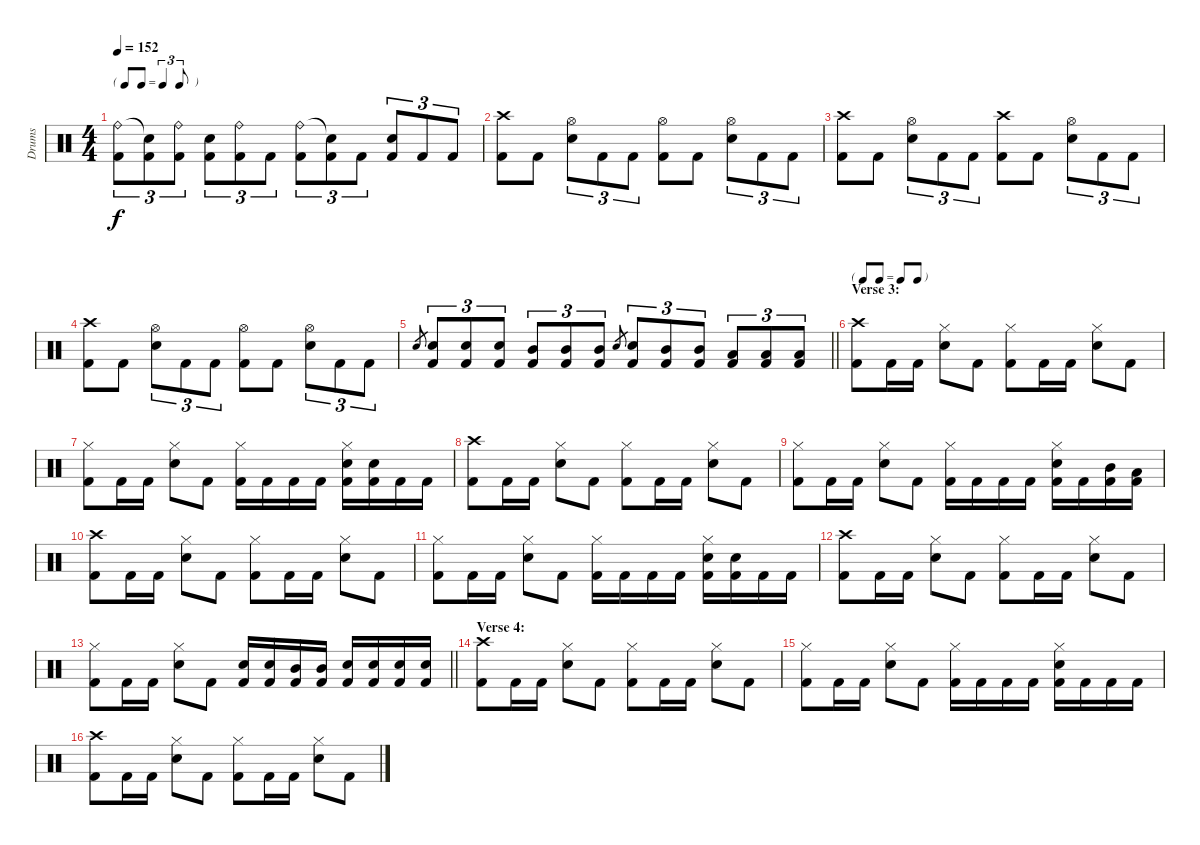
\track ("Drums" "Drums") {instrument percussion}
\staff {score}
\articulation defaults
\ts (4 4)
\tf triplet8th
\tempo 152
\clef neutral
\ks c
("Ride (bell)" "Kick (hit) 2").8{tu (3 2) dy f} ("Snare (hit)"{t} "Kick (hit) 2").8{tu (3 2)} ("Ride (bell)" "Kick (hit) 2").8{tu (3 2)} ("Snare (hit) 2" "Kick (hit) 2").8{tu (3 2)} ("Ride (bell)" "Kick (hit) 2").8{tu (3 2)} "Kick (hit) 2".8{tu (3 2)} ("Ride (bell)" "Kick (hit) 2").8{tu (3 2)} ("Snare (hit)"{t} "Kick (hit) 2").8{tu (3 2)} "Kick (hit) 2".8{tu (3 2)} ("Snare (hit) 2" "Kick (hit) 2").8{tu (3 2)} "Kick (hit) 2".8{tu (3 2)} "Kick (hit) 2".8{tu (3 2)} |
("Crash high (hit)" "Kick (hit) 2").8 "Kick (hit) 2".8 ("Hi-Hat (open)" "Snare (hit) 2").8{tu (3 2)} "Kick (hit) 2".8{tu (3 2)} "Kick (hit) 2".8{tu (3 2)} ("Hi-Hat (open)" "Kick (hit) 2").8 "Kick (hit) 2".8 ("Hi-Hat (open)" "Snare (hit) 2").8{tu (3 2)} "Kick (hit) 2".8{tu (3 2)} "Kick (hit) 2".8{tu (3 2)} |
("Crash high (hit)" "Kick (hit) 2").8 "Kick (hit) 2".8 ("Hi-Hat (open)" "Snare (hit) 2").8{tu (3 2)} "Kick (hit) 2".8{tu (3 2)} "Kick (hit) 2".8{tu (3 2)} ("Crash high (hit)" "Kick (hit) 2").8 "Kick (hit) 2".8 ("Hi-Hat (open)" "Snare (hit) 2").8{tu (3 2)} "Kick (hit) 2".8{tu (3 2)} "Kick (hit) 2".8{tu (3 2)} |
("Crash high (hit)" "Kick (hit) 2").8 "Kick (hit) 2".8 ("Hi-Hat (open)" "Snare (hit) 2").8{tu (3 2)} "Kick (hit) 2".8{tu (3 2)} "Kick (hit) 2".8{tu (3 2)} ("Hi-Hat (open)" "Kick (hit) 2").8 "Kick (hit) 2".8 ("Hi-Hat (open)" "Snare (hit) 2").8{tu (3 2)} "Kick (hit) 2".8{tu (3 2)} "Kick (hit) 2".8{tu (3 2)} |
\barLineRight lightlight "Snare (hit) 2".8{gr}
("Snare (hit) 2" "Kick (hit) 2").8{tu (3 2)} ("Snare (hit) 2" "Kick (hit) 2").8{tu (3 2)} ("Snare (hit) 2" "Kick (hit) 2").8{tu (3 2)} ("Mid Tom (hit)" "Kick (hit) 2").8{tu (3 2)} ("Mid Tom (hit)" "Kick (hit) 2").8{tu (3 2)} ("Mid Tom (hit)" "Kick (hit) 2").8{tu (3 2)} "Snare (hit) 2".8{gr} ("Snare (hit) 2" "Kick (hit) 2").8{tu (3 2)} ("Mid Tom (hit)" "Kick (hit) 2").8{tu (3 2)} ("Mid Tom (hit)" "Kick (hit) 2").8{tu (3 2)} ("Low Tom (hit)" "Kick (hit) 2").8{tu (3 2)} ("Low Tom (hit)" "Kick (hit) 2").8{tu (3 2)} ("Low Tom (hit)" "Kick (hit) 2").8{tu (3 2)} |
\tf none
\section ("" "Verse 3:")
("Crash high (hit)" "Kick (hit) 2").8 "Kick (hit) 2".16 "Kick (hit) 2".16 ("Hi-Hat (closed)" "Snare (hit) 2").8 "Kick (hit) 2".8 ("Hi-Hat (closed)" "Kick (hit) 2").8 "Kick (hit) 2".16 "Kick (hit) 2".16 ("Hi-Hat (closed)" "Snare (hit) 2").8 "Kick (hit) 2".8 |
("Hi-Hat (closed)" "Kick (hit) 2").8 "Kick (hit) 2".16 "Kick (hit) 2".16 ("Hi-Hat (closed)" "Snare (hit) 2").8 "Kick (hit) 2".8 ("Hi-Hat (closed)" "Kick (hit) 2").16 "Kick (hit) 2".16 "Kick (hit) 2".16 "Kick (hit) 2".16 ("Hi-Hat (closed)" "Snare (hit) 2" "Kick (hit) 2").16 ("Snare (hit) 2" "Kick (hit) 2").16 "Kick (hit) 2".16 "Kick (hit) 2".16 |
("Crash high (hit)" "Kick (hit) 2").8 "Kick (hit) 2".16 "Kick (hit) 2".16 ("Hi-Hat (closed)" "Snare (hit) 2").8 "Kick (hit) 2".8 ("Hi-Hat (closed)" "Kick (hit) 2").8 "Kick (hit) 2".16 "Kick (hit) 2".16 ("Hi-Hat (closed)" "Snare (hit) 2").8 "Kick (hit) 2".8 |
("Hi-Hat (closed)" "Kick (hit) 2").8 "Kick (hit) 2".16 "Kick (hit) 2".16 ("Hi-Hat (closed)" "Snare (hit) 2").8 "Kick (hit) 2".8 ("Hi-Hat (closed)" "Kick (hit) 2").16 "Kick (hit) 2".16 "Kick (hit) 2".16 "Kick (hit) 2".16 ("Hi-Hat (closed)" "Snare (hit) 2" "Kick (hit) 2").16 "Kick (hit) 2".16 ("Mid Tom (hit)" "Kick (hit) 2").16 ("Low Tom (hit)" "Kick (hit) 2").16 |
("Crash high (hit)" "Kick (hit) 2").8 "Kick (hit) 2".16 "Kick (hit) 2".16 ("Hi-Hat (closed)" "Snare (hit) 2").8 "Kick (hit) 2".8 ("Hi-Hat (closed)" "Kick (hit) 2").8 "Kick (hit) 2".16 "Kick (hit) 2".16 ("Hi-Hat (closed)" "Snare (hit) 2").8 "Kick (hit) 2".8 |
("Hi-Hat (closed)" "Kick (hit) 2").8 "Kick (hit) 2".16 "Kick (hit) 2".16 ("Hi-Hat (closed)" "Snare (hit) 2").8 "Kick (hit) 2".8 ("Hi-Hat (closed)" "Kick (hit) 2").16 "Kick (hit) 2".16 "Kick (hit) 2".16 "Kick (hit) 2".16 ("Hi-Hat (closed)" "Snare (hit) 2" "Kick (hit) 2").16 ("Snare (hit) 2" "Kick (hit) 2").16 "Kick (hit) 2".16 "Kick (hit) 2".16 |
("Crash high (hit)" "Kick (hit) 2").8 "Kick (hit) 2".16 "Kick (hit) 2".16 ("Hi-Hat (closed)" "Snare (hit) 2").8 "Kick (hit) 2".8 ("Hi-Hat (closed)" "Kick (hit) 2").8 "Kick (hit) 2".16 "Kick (hit) 2".16 ("Hi-Hat (closed)" "Snare (hit) 2").8 "Kick (hit) 2".8 |
\barLineRight lightlight
("Hi-Hat (closed)" "Kick (hit) 2").8 "Kick (hit) 2".16 "Kick (hit) 2".16 ("Hi-Hat (closed)" "Snare (hit) 2").8 "Kick (hit) 2".8 ("Snare (hit) 2" "Kick (hit) 2").16 ("Snare (hit) 2" "Kick (hit) 2").16 ("Mid Tom (hit)" "Kick (hit) 2").16 ("Mid Tom (hit)" "Kick (hit) 2").16 ("Snare (hit) 2" "Kick (hit) 2").16 ("Snare (hit) 2" "Kick (hit) 2").16 ("Snare (hit) 2" "Kick (hit) 2").16 ("Snare (hit) 2" "Kick (hit) 2").16 |
\section ("" "Verse 4:")
("Crash high (hit)" "Kick (hit) 2").8 "Kick (hit) 2".16 "Kick (hit) 2".16 ("Hi-Hat (closed)" "Snare (hit) 2").8 "Kick (hit) 2".8 ("Hi-Hat (closed)" "Kick (hit) 2").8 "Kick (hit) 2".16 "Kick (hit) 2".16 ("Hi-Hat (closed)" "Snare (hit) 2").8 "Kick (hit) 2".8 |
("Hi-Hat (closed)" "Kick (hit) 2").8 "Kick (hit) 2".16 "Kick (hit) 2".16 ("Hi-Hat (closed)" "Snare (hit) 2").8 "Kick (hit) 2".8 ("Hi-Hat (closed)" "Kick (hit) 2").16 "Kick (hit) 2".16 "Kick (hit) 2".16 "Kick (hit) 2".16 ("Hi-Hat (closed)" "Snare (hit) 2" "Kick (hit) 2").16 "Kick (hit) 2".16 "Kick (hit) 2".16 "Kick (hit) 2".16 |
("Crash high (hit)" "Kick (hit) 2").8 "Kick (hit) 2".16 "Kick (hit) 2".16 ("Hi-Hat (closed)" "Snare (hit) 2").8 "Kick (hit) 2".8 ("Hi-Hat (closed)" "Kick (hit) 2").8 "Kick (hit) 2".16 "Kick (hit) 2".16 ("Hi-Hat (closed)" "Snare (hit) 2").8 "Kick (hit) 2".8
